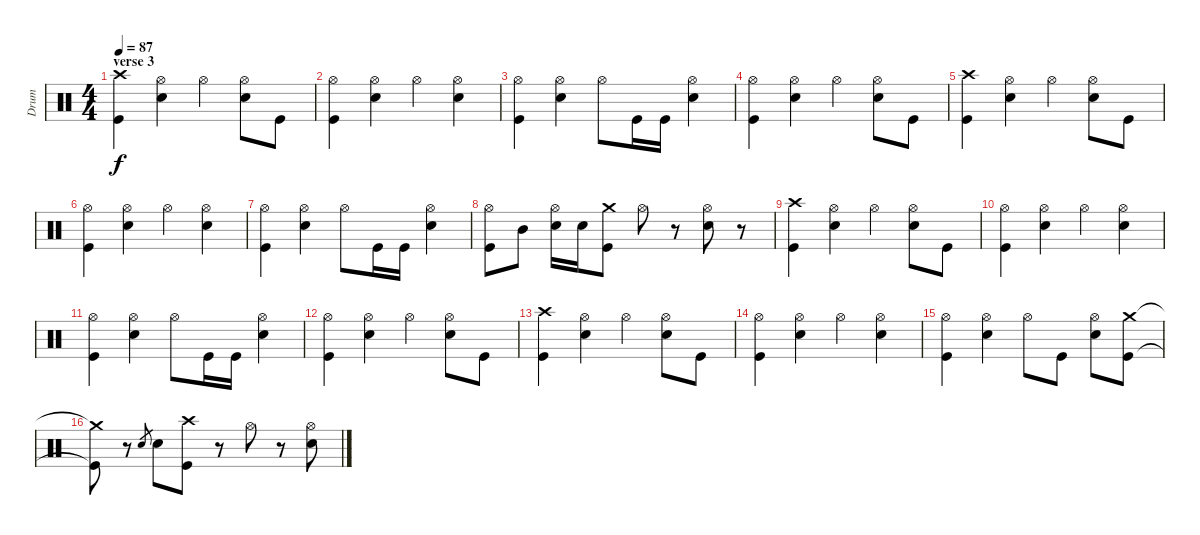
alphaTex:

\track ("Drum" "Drum") {instrument percussion}
\staff {score}
\articulation defaults
\ts (4 4)
\section ("" "verse 3")
\tempo 87
\clef neutral
\ks c
("Crash high (hit)" "Kick (hit)").4{dy f} ("Hi-Hat (open)" "Snare (hit) 2").4 "Hi-Hat (open)".4 ("Hi-Hat (open)" "Snare (hit) 2").8 "Kick (hit)".8 |
("Hi-Hat (open)" "Kick (hit)").4 ("Hi-Hat (open)" "Snare (hit) 2").4 "Hi-Hat (open)".4 ("Hi-Hat (open)" "Snare (hit) 2").4 |
("Hi-Hat (open)" "Kick (hit)").4 ("Hi-Hat (open)" "Snare (hit) 2").4 "Hi-Hat (open)".8 "Kick (hit)".16 "Kick (hit)".16 ("Hi-Hat (open)" "Snare (hit) 2").4 |
("Hi-Hat (open)" "Kick (hit)").4 ("Hi-Hat (open)" "Snare (hit) 2").4 "Hi-Hat (open)".4 ("Hi-Hat (open)" "Snare (hit) 2").8 "Kick (hit)".8 |
("Crash high (hit)" "Kick (hit)").4 ("Hi-Hat (open)" "Snare (hit) 2").4 "Hi-Hat (open)".4 ("Hi-Hat (open)" "Snare (hit) 2").8 "Kick (hit)".8 |
("Hi-Hat (open)" "Kick (hit)").4 ("Hi-Hat (open)" "Snare (hit) 2").4 "Hi-Hat (open)".4 ("Hi-Hat (open)" "Snare (hit) 2").4 |
("Hi-Hat (open)" "Kick (hit)").4 ("Hi-Hat (open)" "Snare (hit) 2").4 "Hi-Hat (open)".8 "Kick (hit)".16 "Kick (hit)".16 ("Hi-Hat (open)" "Snare (hit) 2").4 |
("Hi-Hat (open)" "Kick (hit)").8 "Mid Tom (hit)".8 ("Hi-Hat (open)" "Snare (hit) 2").16 "Snare (hit) 2".16 ("Crash medium (hit)" "Kick (hit)").8 "Hi-Hat (open)".8 r.8 ("Hi-Hat (open)" "Snare (hit) 2").8 r.8 |
("Crash high (hit)" "Kick (hit)").4 ("Hi-Hat (open)" "Snare (hit) 2").4 "Hi-Hat (open)".4 ("Hi-Hat (open)" "Snare (hit) 2").8 "Kick (hit)".8 |
("Hi-Hat (open)" "Kick (hit)").4 ("Hi-Hat (open)" "Snare (hit) 2").4 "Hi-Hat (open)".4 ("Hi-Hat (open)" "Snare (hit) 2").4 |
("Hi-Hat (open)" "Kick (hit)").4 ("Hi-Hat (open)" "Snare (hit) 2").4 "Hi-Hat (open)".8 "Kick (hit)".16 "Kick (hit)".16 ("Hi-Hat (open)" "Snare (hit) 2").4 |
("Hi-Hat (open)" "Kick (hit)").4 ("Hi-Hat (open)" "Snare (hit) 2").4 "Hi-Hat (open)".4 ("Hi-Hat (open)" "Snare (hit) 2").8 "Kick (hit)".8 |
("Crash high (hit)" "Kick (hit)").4 ("Hi-Hat (open)" "Snare (hit) 2").4 "Hi-Hat (open)".4 ("Hi-Hat (open)" "Snare (hit) 2").8 "Kick (hit)".8 |
("Hi-Hat (open)" "Kick (hit)").4 ("Hi-Hat (open)" "Snare (hit) 2").4 "Hi-Hat (open)".4 ("Hi-Hat (open)" "Snare (hit) 2").4 |
("Hi-Hat (open)" "Kick (hit)").4 ("Hi-Hat (open)" "Snare (hit) 2").4 "Hi-Hat (open)".8 "Kick (hit)".8 ("Hi-Hat (open)" "Snare (hit) 2").8 ("Crash medium (hit)" "Kick (hit)").8 |
("Crash medium (hit)"{t} "Kick (hit)"{t}).8 r.8 "Snare (hit) 2".8{gr} "Snare (hit) 2".8 ("Crash high (hit)" "Kick (hit)").8 r.8 "Hi-Hat (open)".8 r.8 ("Hi-Hat (open)" "Snare (hit) 2").8
